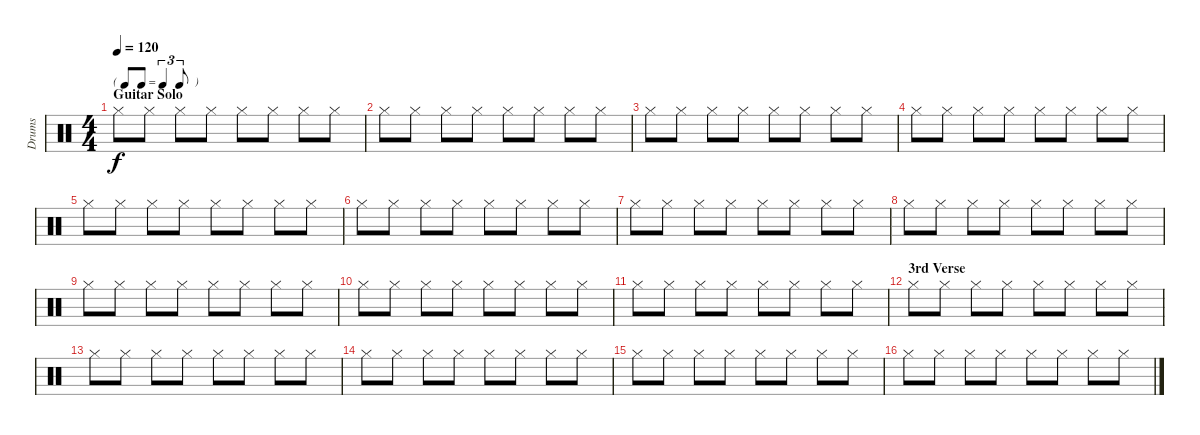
\track ("Drums" "Drums") {instrument percussion}
\staff {score}
\articulation defaults
\ts (4 4)
\tf triplet8th
\section ("" "Guitar Solo")
\tempo 120
\clef neutral
\ks c "Hi-Hat (closed)".8{dy f} "Hi-Hat (closed)".8 "Hi-Hat (closed)".8 "Hi-Hat (closed)".8 "Hi-Hat (closed)".8 "Hi-Hat (closed)".8 "Hi-Hat (closed)".8 "Hi-Hat (closed)".8
|
"Hi-Hat (closed)".8 "Hi-Hat (closed)".8 "Hi-Hat (closed)".8 "Hi-Hat (closed)".8 "Hi-Hat (closed)".8 "Hi-Hat (closed)".8 "Hi-Hat (closed)".8 "Hi-Hat (closed)".8 |
"Hi-Hat (closed)".8 "Hi-Hat (closed)".8 "Hi-Hat (closed)".8 "Hi-Hat (closed)".8 "Hi-Hat (closed)".8 "Hi-Hat (closed)".8 "Hi-Hat (closed)".8 "Hi-Hat (closed)".8 |
"Hi-Hat (closed)".8 "Hi-Hat (closed)".8 "Hi-Hat (closed)".8 "Hi-Hat (closed)".8 "Hi-Hat (closed)".8 "Hi-Hat (closed)".8 "Hi-Hat (closed)".8 "Hi-Hat (closed)".8 |
"Hi-Hat (closed)".8 "Hi-Hat (closed)".8 "Hi-Hat (closed)".8 "Hi-Hat (closed)".8 "Hi-Hat (closed)".8 "Hi-Hat (closed)".8 "Hi-Hat (closed)".8 "Hi-Hat (closed)".8 |
"Hi-Hat (closed)".8 "Hi-Hat (closed)".8 "Hi-Hat (closed)".8 "Hi-Hat (closed)".8 "Hi-Hat (closed)".8 "Hi-Hat (closed)".8 "Hi-Hat (closed)".8 "Hi-Hat (closed)".8 |
"Hi-Hat (closed)".8 "Hi-Hat (closed)".8 "Hi-Hat (closed)".8 "Hi-Hat (closed)".8 "Hi-Hat (closed)".8 "Hi-Hat (closed)".8 "Hi-Hat (closed)".8 "Hi-Hat (closed)".8 |
"Hi-Hat (closed)".8 "Hi-Hat (closed)".8 "Hi-Hat (closed)".8 "Hi-Hat (closed)".8 "Hi-Hat (closed)".8 "Hi-Hat (closed)".8 "Hi-Hat (closed)".8 "Hi-Hat (closed)".8 |
"Hi-Hat (closed)".8 "Hi-Hat (closed)".8 "Hi-Hat (closed)".8 "Hi-Hat (closed)".8 "Hi-Hat (closed)".8 "Hi-Hat (closed)".8 "Hi-Hat (closed)".8 "Hi-Hat (closed)".8 |
"Hi-Hat (closed)".8 "Hi-Hat (closed)".8 "Hi-Hat (closed)".8 "Hi-Hat (closed)".8 "Hi-Hat (closed)".8 "Hi-Hat (closed)".8 "Hi-Hat (closed)".8 "Hi-Hat (closed)".8 |
"Hi-Hat (closed)".8 "Hi-Hat (closed)".8 "Hi-Hat (closed)".8 "Hi-Hat (closed)".8 "Hi-Hat (closed)".8 "Hi-Hat (closed)".8 "Hi-Hat (closed)".8 "Hi-Hat (closed)".8 |
\section ("" "3rd Verse")
"Hi-Hat (closed)".8 "Hi-Hat (closed)".8 "Hi-Hat (closed)".8 "Hi-Hat (closed)".8 "Hi-Hat (closed)".8 "Hi-Hat (closed)".8 "Hi-Hat (closed)".8 "Hi-Hat (closed)".8 |
"Hi-Hat (closed)".8 "Hi-Hat (closed)".8 "Hi-Hat (closed)".8 "Hi-Hat (closed)".8 "Hi-Hat (closed)".8 "Hi-Hat (closed)".8 "Hi-Hat (closed)".8 "Hi-Hat (closed)".8 |
"Hi-Hat (closed)".8 "Hi-Hat (closed)".8 "Hi-Hat (closed)".8 "Hi-Hat (closed)".8 "Hi-Hat (closed)".8 "Hi-Hat (closed)".8 "Hi-Hat (closed)".8 "Hi-Hat (closed)".8 |
"Hi-Hat (closed)".8 "Hi-Hat (closed)".8 "Hi-Hat (closed)".8 "Hi-Hat (closed)".8 "Hi-Hat (closed)".8 "Hi-Hat (closed)".8 "Hi-Hat (closed)".8 "Hi-Hat (closed)".8 |
"Hi-Hat (closed)".8 "Hi-Hat (closed)".8 "Hi-Hat (closed)".8 "Hi-Hat (closed)".8 "Hi-Hat (closed)".8 "Hi-Hat (closed)".8 "Hi-Hat (closed)".8 "Hi-Hat (closed)".8
